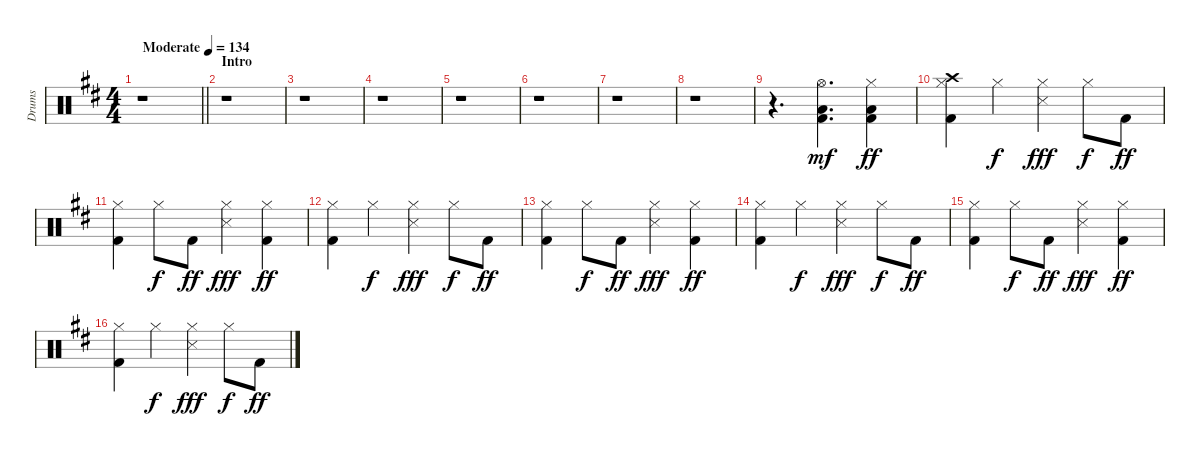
\track ("Drums" "Drums") {instrument percussion}
\staff {score}
\articulation defaults
\ts (4 4)
\tempo (134 "Moderate")
\clef neutral
\barLineRight lightlight
\ks d
r.1{dy mf} |
\section ("" "Intro")
r.1 |
r.1 |
r.1 |
r.1 |
r.1 |
r.1 |
r.1 |
r.4{d} ("Kick (hit) 2" "Low Tom (hit)" "Hi-Hat (open)").4{d} ("Kick (hit) 2" "Low Floor Tom (hit)" "Hi-Hat (closed)").4{dy ff} |
("Kick (hit) 2" "Hi-Hat (closed)" "Crash high (hit)").4 "Hi-Hat (closed)".4{dy f} ("Snare (side stick) 3" "Hi-Hat (closed)").4{dy fff} "Hi-Hat (closed)".8{dy f} "Kick (hit) 2".8{dy ff} |
("Kick (hit) 2" "Hi-Hat (closed)").4 "Hi-Hat (closed)".8{dy f} "Kick (hit) 2".8{dy ff} ("Snare (side stick) 3" "Hi-Hat (closed)").4{dy fff} ("Kick (hit) 2" "Hi-Hat (closed)").4{dy ff} |
("Kick (hit) 2" "Hi-Hat (closed)").4 "Hi-Hat (closed)".4{dy f} ("Snare (side stick) 3" "Hi-Hat (closed)").4{dy fff} "Hi-Hat (closed)".8{dy f} "Kick (hit) 2".8{dy ff} |
("Kick (hit) 2" "Hi-Hat (closed)").4 "Hi-Hat (closed)".8{dy f} "Kick (hit) 2".8{dy ff} ("Snare (side stick) 3" "Hi-Hat (closed)").4{dy fff} ("Kick (hit) 2" "Hi-Hat (closed)").4{dy ff} |
("Kick (hit) 2" "Hi-Hat (closed)").4 "Hi-Hat (closed)".4{dy f} ("Snare (side stick) 3" "Hi-Hat (closed)").4{dy fff} "Hi-Hat (closed)".8{dy f} "Kick (hit) 2".8{dy ff} |
("Kick (hit) 2" "Hi-Hat (closed)").4 "Hi-Hat (closed)".8{dy f} "Kick (hit) 2".8{dy ff} ("Snare (side stick) 3" "Hi-Hat (closed)").4{dy fff} ("Kick (hit) 2" "Hi-Hat (closed)").4{dy ff} |
("Kick (hit) 2" "Hi-Hat (closed)").4 "Hi-Hat (closed)".4{dy f} ("Snare (side stick) 3" "Hi-Hat (closed)").4{dy fff} "Hi-Hat (closed)".8{dy f} "Kick (hit) 2".8{dy ff}
